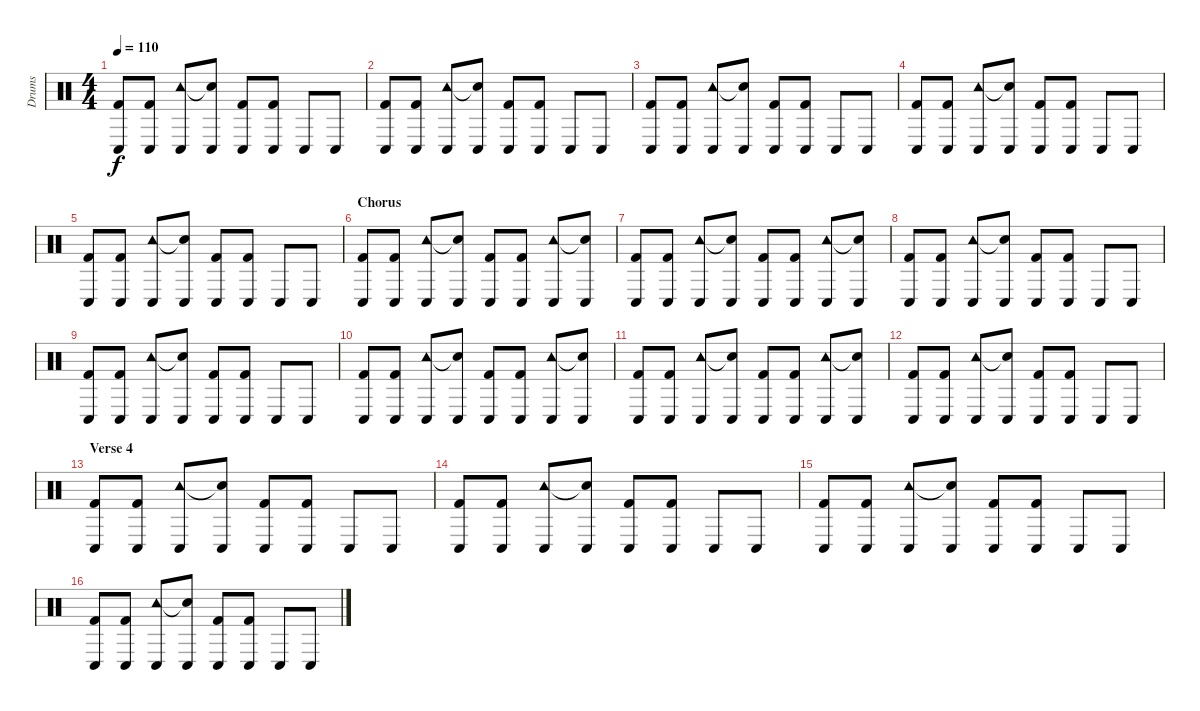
\track ("Drums" "Drums") {instrument percussion}
\staff {score}
\articulation defaults
\ts (4 4)
\tempo 110
\clef neutral
\ks c
("Conga low (hit)" "Kick (hit) 2").8{dy f} ("Conga low (hit)" "Kick (hit) 2").8 ("Tambourine (hit)" "Conga low (hit)").8 ("Snare (hit)"{t} "Conga low (hit)").8 ("Conga low (hit)" "Kick (hit) 2").8 ("Conga low (hit)" "Kick (hit) 2").8 "Conga low (hit)".8 "Conga low (hit)".8 |
("Conga low (hit)" "Kick (hit) 2").8 ("Conga low (hit)" "Kick (hit) 2").8 ("Tambourine (hit)" "Conga low (hit)").8 ("Snare (hit)"{t} "Conga low (hit)").8 ("Conga low (hit)" "Kick (hit) 2").8 ("Conga low (hit)" "Kick (hit) 2").8 "Conga low (hit)".8 "Conga low (hit)".8 |
("Conga low (hit)" "Kick (hit) 2").8 ("Conga low (hit)" "Kick (hit) 2").8 ("Tambourine (hit)" "Conga low (hit)").8 ("Snare (hit)"{t} "Conga low (hit)").8 ("Conga low (hit)" "Kick (hit) 2").8 ("Conga low (hit)" "Kick (hit) 2").8 "Conga low (hit)".8 "Conga low (hit)".8 |
("Conga low (hit)" "Kick (hit) 2").8 ("Conga low (hit)" "Kick (hit) 2").8 ("Tambourine (hit)" "Conga low (hit)").8 ("Snare (hit)"{t} "Conga low (hit)").8 ("Conga low (hit)" "Kick (hit) 2").8 ("Conga low (hit)" "Kick (hit) 2").8 "Conga low (hit)".8 "Conga low (hit)".8 |
("Conga low (hit)" "Kick (hit) 2").8 ("Conga low (hit)" "Kick (hit) 2").8 ("Tambourine (hit)" "Conga low (hit)").8 ("Snare (hit)"{t} "Conga low (hit)").8 ("Conga low (hit)" "Kick (hit) 2").8 ("Conga low (hit)" "Kick (hit) 2").8 "Conga low (hit)".8 "Conga low (hit)".8 |
\section ("" "Chorus")
("Conga low (hit)" "Kick (hit) 2").8 ("Conga low (hit)" "Kick (hit) 2").8 ("Tambourine (hit)" "Conga low (hit)").8 ("Snare (hit)"{t} "Conga low (hit)").8 ("Conga low (hit)" "Kick (hit) 2").8 ("Conga low (hit)" "Kick (hit) 2").8 ("Tambourine (hit)" "Conga low (hit)").8 ("Snare (hit)"{t} "Conga low (hit)").8 |
("Conga low (hit)" "Kick (hit) 2").8 ("Conga low (hit)" "Kick (hit) 2").8 ("Tambourine (hit)" "Conga low (hit)").8 ("Snare (hit)"{t} "Conga low (hit)").8 ("Conga low (hit)" "Kick (hit) 2").8 ("Conga low (hit)" "Kick (hit) 2").8 ("Tambourine (hit)" "Conga low (hit)").8 ("Snare (hit)"{t} "Conga low (hit)").8 |
("Conga low (hit)" "Kick (hit) 2").8 ("Conga low (hit)" "Kick (hit) 2").8 ("Tambourine (hit)" "Conga low (hit)").8 ("Snare (hit)"{t} "Conga low (hit)").8 ("Conga low (hit)" "Kick (hit) 2").8 ("Conga low (hit)" "Kick (hit) 2").8 "Conga low (hit)".8 "Conga low (hit)".8 |
("Conga low (hit)" "Kick (hit) 2").8 ("Conga low (hit)" "Kick (hit) 2").8 ("Tambourine (hit)" "Conga low (hit)").8 ("Snare (hit)"{t} "Conga low (hit)").8 ("Conga low (hit)" "Kick (hit) 2").8 ("Conga low (hit)" "Kick (hit) 2").8 "Conga low (hit)".8 "Conga low (hit)".8 |
("Conga low (hit)" "Kick (hit) 2").8 ("Conga low (hit)" "Kick (hit) 2").8 ("Tambourine (hit)" "Conga low (hit)").8 ("Snare (hit)"{t} "Conga low (hit)").8 ("Conga low (hit)" "Kick (hit) 2").8 ("Conga low (hit)" "Kick (hit) 2").8 ("Tambourine (hit)" "Conga low (hit)").8 ("Snare (hit)"{t} "Conga low (hit)").8 |
("Conga low (hit)" "Kick (hit) 2").8 ("Conga low (hit)" "Kick (hit) 2").8 ("Tambourine (hit)" "Conga low (hit)").8 ("Snare (hit)"{t} "Conga low (hit)").8 ("Conga low (hit)" "Kick (hit) 2").8 ("Conga low (hit)" "Kick (hit) 2").8 ("Tambourine (hit)" "Conga low (hit)").8 ("Snare (hit)"{t} "Conga low (hit)").8 |
("Conga low (hit)" "Kick (hit) 2").8 ("Conga low (hit)" "Kick (hit) 2").8 ("Tambourine (hit)" "Conga low (hit)").8 ("Snare (hit)"{t} "Conga low (hit)").8 ("Conga low (hit)" "Kick (hit) 2").8 ("Conga low (hit)" "Kick (hit) 2").8 "Conga low (hit)".8 "Conga low (hit)".8 |
\section ("" "Verse 4")
("Conga low (hit)" "Kick (hit) 2").8 ("Conga low (hit)" "Kick (hit) 2").8 ("Tambourine (hit)" "Conga low (hit)").8 ("Snare (hit)"{t} "Conga low (hit)").8 ("Conga low (hit)" "Kick (hit) 2").8 ("Conga low (hit)" "Kick (hit) 2").8 "Conga low (hit)".8 "Conga low (hit)".8 |
("Conga low (hit)" "Kick (hit) 2").8 ("Conga low (hit)" "Kick (hit) 2").8 ("Tambourine (hit)" "Conga low (hit)").8 ("Snare (hit)"{t} "Conga low (hit)").8 ("Conga low (hit)" "Kick (hit) 2").8 ("Conga low (hit)" "Kick (hit) 2").8 "Conga low (hit)".8 "Conga low (hit)".8 |
("Conga low (hit)" "Kick (hit) 2").8 ("Conga low (hit)" "Kick (hit) 2").8 ("Tambourine (hit)" "Conga low (hit)").8 ("Snare (hit)"{t} "Conga low (hit)").8 ("Conga low (hit)" "Kick (hit) 2").8 ("Conga low (hit)" "Kick (hit) 2").8 "Conga low (hit)".8 "Conga low (hit)".8 |
("Conga low (hit)" "Kick (hit) 2").8 ("Conga low (hit)" "Kick (hit) 2").8 ("Tambourine (hit)" "Conga low (hit)").8 ("Snare (hit)"{t} "Conga low (hit)").8 ("Conga low (hit)" "Kick (hit) 2").8 ("Conga low (hit)" "Kick (hit) 2").8 "Conga low (hit)".8 "Conga low (hit)".8
